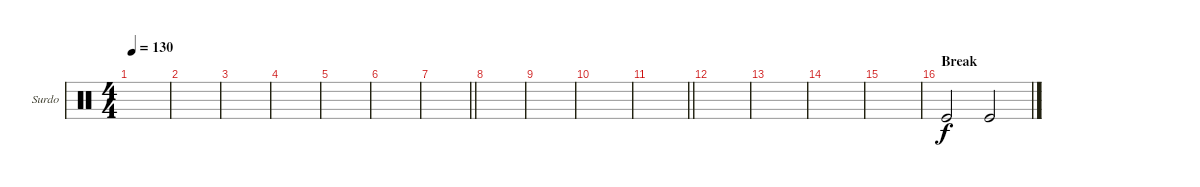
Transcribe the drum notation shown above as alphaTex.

\defaultSystemsLayout 4
\bracketExtendMode groupsimilarinstruments
\firstSystemTrackNameOrientation horizontal
\otherSystemsTrackNameOrientation horizontal
\track ("Surdo" "Surdo") {instrument percussion}
\staff {score}
\articulation defaults
\ts (4 4)
\tempo 130
\clef neutral
\scale
0.333333
\ks aminor
|
\scale
0.333333 |
\scale
0.333333 |
\scale
0.333333 |
\scale
0.333333 |
\scale
0.333333 |
\scale
0.333333
\barLineRight lightlight
|
\scale
0.333333 |
\scale
0.333333 |
\scale
0.333333 |
\scale
0.333333
\barLineRight lightlight
|
\scale
0.333333 |
\scale
0.333333 |
\scale
0.333333 |
\scale
0.333333 |
\section ("" "Break")
\scale
0.333333 "Kick (hit)".2 "Kick (hit)".2
